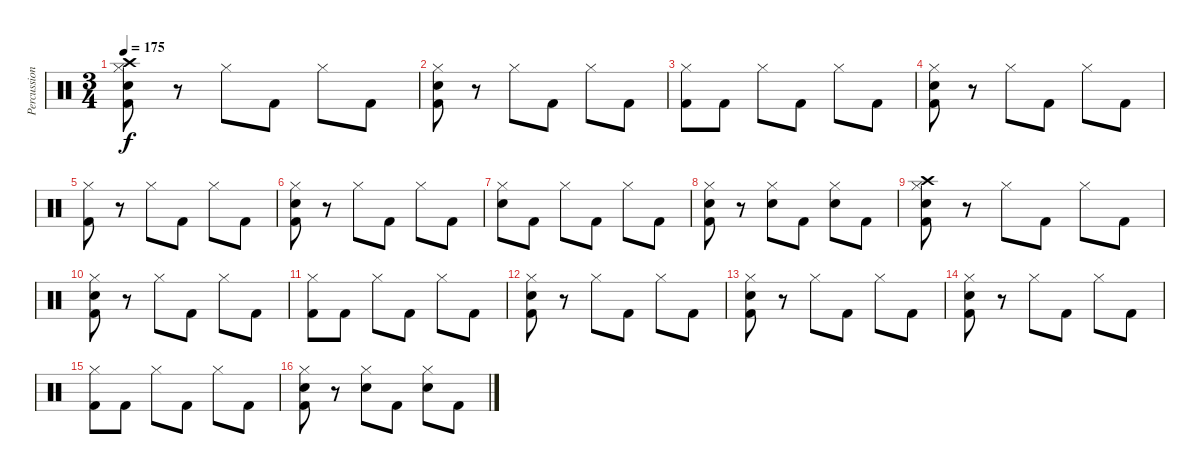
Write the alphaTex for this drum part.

\track ("Percussion" "Percussion") {instrument percussion}
\staff {score}
\articulation defaults
\ts (3 4)
\tempo 175
\clef neutral
\ks c
("Hi-Hat (closed)" "Crash high (hit)" "Electric Snare (hit)" "Kick (hit) 2").8{dy f} r.8 "Hi-Hat (closed)".8 "Kick (hit) 2".8 "Hi-Hat (closed)".8 "Kick (hit) 2".8 |
("Hi-Hat (closed)" "Electric Snare (hit)" "Kick (hit) 2").8 r.8 "Hi-Hat (closed)".8 "Kick (hit) 2".8 "Hi-Hat (closed)".8 "Kick (hit) 2".8 |
("Hi-Hat (closed)" "Kick (hit) 2").8 "Kick (hit) 2".8 "Hi-Hat (closed)".8 "Kick (hit) 2".8 "Hi-Hat (closed)".8 "Kick (hit) 2".8 |
("Hi-Hat (closed)" "Electric Snare (hit)" "Kick (hit) 2").8 r.8 "Hi-Hat (closed)".8 "Kick (hit) 2".8 "Hi-Hat (closed)".8 "Kick (hit) 2".8 |
("Hi-Hat (closed)" "Kick (hit) 2").8 r.8 "Hi-Hat (closed)".8 "Kick (hit) 2".8 "Hi-Hat (closed)".8 "Kick (hit) 2".8 |
("Hi-Hat (closed)" "Electric Snare (hit)" "Kick (hit) 2").8 r.8 "Hi-Hat (closed)".8 "Kick (hit) 2".8 "Hi-Hat (closed)".8 "Kick (hit) 2".8 |
("Hi-Hat (closed)" "Electric Snare (hit)").8 "Kick (hit) 2".8 "Hi-Hat (closed)".8 "Kick (hit) 2".8 "Hi-Hat (closed)".8 "Kick (hit) 2".8 |
("Hi-Hat (closed)" "Electric Snare (hit)" "Kick (hit) 2").8 r.8 ("Hi-Hat (closed)" "Electric Snare (hit)").8 "Kick (hit) 2".8 ("Hi-Hat (closed)" "Electric Snare (hit)").8 "Kick (hit) 2".8 |
("Hi-Hat (closed)" "Crash high (hit)" "Electric Snare (hit)" "Kick (hit) 2").8 r.8 "Hi-Hat (closed)".8 "Kick (hit) 2".8 "Hi-Hat (closed)".8 "Kick (hit) 2".8 |
("Hi-Hat (closed)" "Electric Snare (hit)" "Kick (hit) 2").8 r.8 "Hi-Hat (closed)".8 "Kick (hit) 2".8 "Hi-Hat (closed)".8 "Kick (hit) 2".8 |
("Hi-Hat (closed)" "Kick (hit) 2").8 "Kick (hit) 2".8 "Hi-Hat (closed)".8 "Kick (hit) 2".8 "Hi-Hat (closed)".8 "Kick (hit) 2".8 |
("Hi-Hat (closed)" "Electric Snare (hit)" "Kick (hit) 2").8 r.8 "Hi-Hat (closed)".8 "Kick (hit) 2".8 "Hi-Hat (closed)".8 "Kick (hit) 2".8 |
("Hi-Hat (closed)" "Electric Snare (hit)" "Kick (hit) 2").8 r.8 "Hi-Hat (closed)".8 "Kick (hit) 2".8 "Hi-Hat (closed)".8 "Kick (hit) 2".8 |
("Hi-Hat (closed)" "Electric Snare (hit)" "Kick (hit) 2").8 r.8 "Hi-Hat (closed)".8 "Kick (hit) 2".8 "Hi-Hat (closed)".8 "Kick (hit) 2".8 |
("Hi-Hat (closed)" "Kick (hit) 2").8 "Kick (hit) 2".8 "Hi-Hat (closed)".8 "Kick (hit) 2".8 "Hi-Hat (closed)".8 "Kick (hit) 2".8 |
("Hi-Hat (closed)" "Electric Snare (hit)" "Kick (hit) 2").8 r.8 ("Hi-Hat (closed)" "Electric Snare (hit)").8 "Kick (hit) 2".8 ("Hi-Hat (closed)" "Electric Snare (hit)").8 "Kick (hit) 2".8
